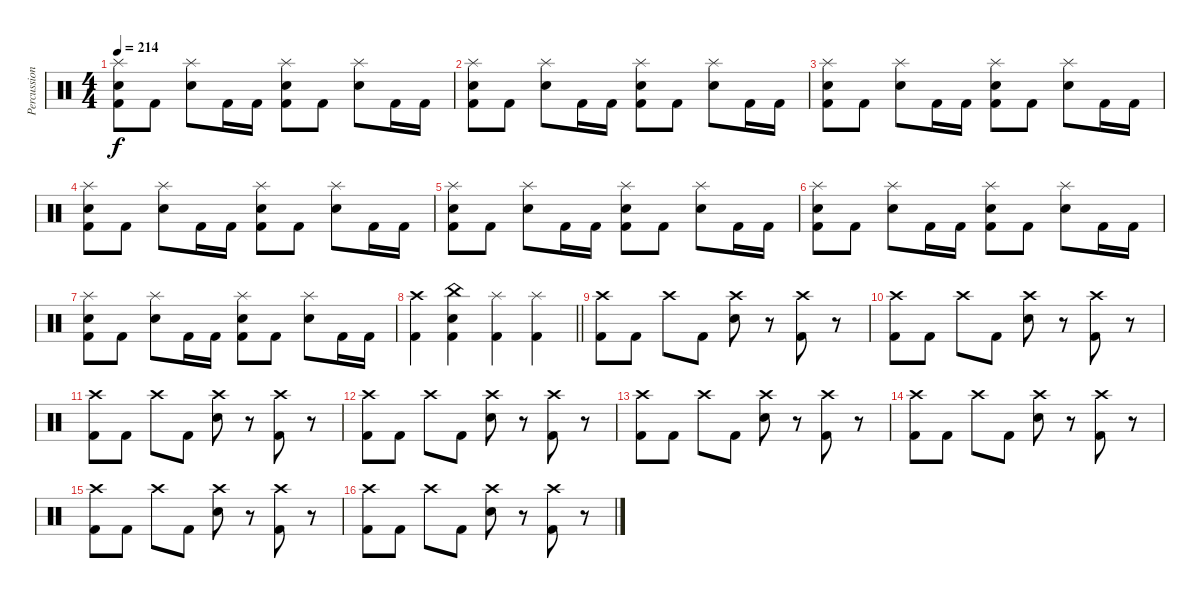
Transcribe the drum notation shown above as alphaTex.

\track ("Percussion" "Percussion") {instrument percussion}
\staff {score}
\articulation defaults
\ts (4 4)
\tempo 214
\clef neutral
\ks c
("Splash (hit)" "Electric Snare (hit)" "Kick (hit) 2").8{dy f} "Kick (hit) 2".8 ("Splash (hit)" "Electric Snare (hit)").8 "Kick (hit) 2".16 "Kick (hit) 2".16 ("Splash (hit)" "Electric Snare (hit)" "Kick (hit) 2").8 "Kick (hit) 2".8 ("Splash (hit)" "Electric Snare (hit)").8 "Kick (hit) 2".16 "Kick (hit) 2".16 |
("Splash (hit)" "Electric Snare (hit)" "Kick (hit) 2").8 "Kick (hit) 2".8 ("Splash (hit)" "Electric Snare (hit)").8 "Kick (hit) 2".16 "Kick (hit) 2".16 ("Splash (hit)" "Electric Snare (hit)" "Kick (hit) 2").8 "Kick (hit) 2".8 ("Splash (hit)" "Electric Snare (hit)").8 "Kick (hit) 2".16 "Kick (hit) 2".16 |
("Splash (hit)" "Electric Snare (hit)" "Kick (hit) 2").8 "Kick (hit) 2".8 ("Splash (hit)" "Electric Snare (hit)").8 "Kick (hit) 2".16 "Kick (hit) 2".16 ("Splash (hit)" "Electric Snare (hit)" "Kick (hit) 2").8 "Kick (hit) 2".8 ("Splash (hit)" "Electric Snare (hit)").8 "Kick (hit) 2".16 "Kick (hit) 2".16 |
("Splash (hit)" "Electric Snare (hit)" "Kick (hit) 2").8 "Kick (hit) 2".8 ("Splash (hit)" "Electric Snare (hit)").8 "Kick (hit) 2".16 "Kick (hit) 2".16 ("Splash (hit)" "Electric Snare (hit)" "Kick (hit) 2").8 "Kick (hit) 2".8 ("Splash (hit)" "Electric Snare (hit)").8 "Kick (hit) 2".16 "Kick (hit) 2".16 |
("Splash (hit)" "Electric Snare (hit)" "Kick (hit) 2").8 "Kick (hit) 2".8 ("Splash (hit)" "Electric Snare (hit)").8 "Kick (hit) 2".16 "Kick (hit) 2".16 ("Splash (hit)" "Electric Snare (hit)" "Kick (hit) 2").8 "Kick (hit) 2".8 ("Splash (hit)" "Electric Snare (hit)").8 "Kick (hit) 2".16 "Kick (hit) 2".16 |
("Splash (hit)" "Electric Snare (hit)" "Kick (hit) 2").8 "Kick (hit) 2".8 ("Splash (hit)" "Electric Snare (hit)").8 "Kick (hit) 2".16 "Kick (hit) 2".16 ("Splash (hit)" "Electric Snare (hit)" "Kick (hit) 2").8 "Kick (hit) 2".8 ("Splash (hit)" "Electric Snare (hit)").8 "Kick (hit) 2".16 "Kick (hit) 2".16 |
("Splash (hit)" "Electric Snare (hit)" "Kick (hit) 2").8 "Kick (hit) 2".8 ("Splash (hit)" "Electric Snare (hit)").8 "Kick (hit) 2".16 "Kick (hit) 2".16 ("Splash (hit)" "Electric Snare (hit)" "Kick (hit) 2").8 "Kick (hit) 2".8 ("Splash (hit)" "Electric Snare (hit)").8 "Kick (hit) 2".16 "Kick (hit) 2".16 |
\barLineRight lightlight
("Crash high (hit)" "Kick (hit) 2").4 ("China (hit)" "Electric Snare (hit)" "Kick (hit) 2").4 ("Splash (hit)" "Kick (hit) 2").4 ("Splash (hit)" "Kick (hit) 2").4 |
\section ("" "")
("Crash high (hit)" "Kick (hit) 2").8 "Kick (hit) 2".8 "Crash high (hit)".8 "Kick (hit) 2".8 ("Crash high (hit)" "Electric Snare (hit)").8 r.8 ("Crash high (hit)" "Kick (hit) 2").8 r.8 |
("Crash high (hit)" "Kick (hit) 2").8 "Kick (hit) 2".8 "Crash high (hit)".8 "Kick (hit) 2".8 ("Crash high (hit)" "Electric Snare (hit)").8 r.8 ("Crash high (hit)" "Kick (hit) 2").8 r.8 |
("Crash high (hit)" "Kick (hit) 2").8 "Kick (hit) 2".8 "Crash high (hit)".8 "Kick (hit) 2".8 ("Crash high (hit)" "Electric Snare (hit)").8 r.8 ("Crash high (hit)" "Kick (hit) 2").8 r.8 |
("Crash high (hit)" "Kick (hit) 2").8 "Kick (hit) 2".8 "Crash high (hit)".8 "Kick (hit) 2".8 ("Crash high (hit)" "Electric Snare (hit)").8 r.8 ("Crash high (hit)" "Kick (hit) 2").8 r.8 |
("Crash high (hit)" "Kick (hit) 2").8 "Kick (hit) 2".8 "Crash high (hit)".8 "Kick (hit) 2".8 ("Crash high (hit)" "Electric Snare (hit)").8 r.8 ("Crash high (hit)" "Kick (hit) 2").8 r.8 |
("Crash high (hit)" "Kick (hit) 2").8 "Kick (hit) 2".8 "Crash high (hit)".8 "Kick (hit) 2".8 ("Crash high (hit)" "Electric Snare (hit)").8 r.8 ("Crash high (hit)" "Kick (hit) 2").8 r.8 |
("Crash high (hit)" "Kick (hit) 2").8 "Kick (hit) 2".8 "Crash high (hit)".8 "Kick (hit) 2".8 ("Crash high (hit)" "Electric Snare (hit)").8 r.8 ("Crash high (hit)" "Kick (hit) 2").8 r.8 |
("Crash high (hit)" "Kick (hit) 2").8 "Kick (hit) 2".8 "Crash high (hit)".8 "Kick (hit) 2".8 ("Crash high (hit)" "Electric Snare (hit)").8 r.8 ("Crash high (hit)" "Kick (hit) 2").8 r.8
